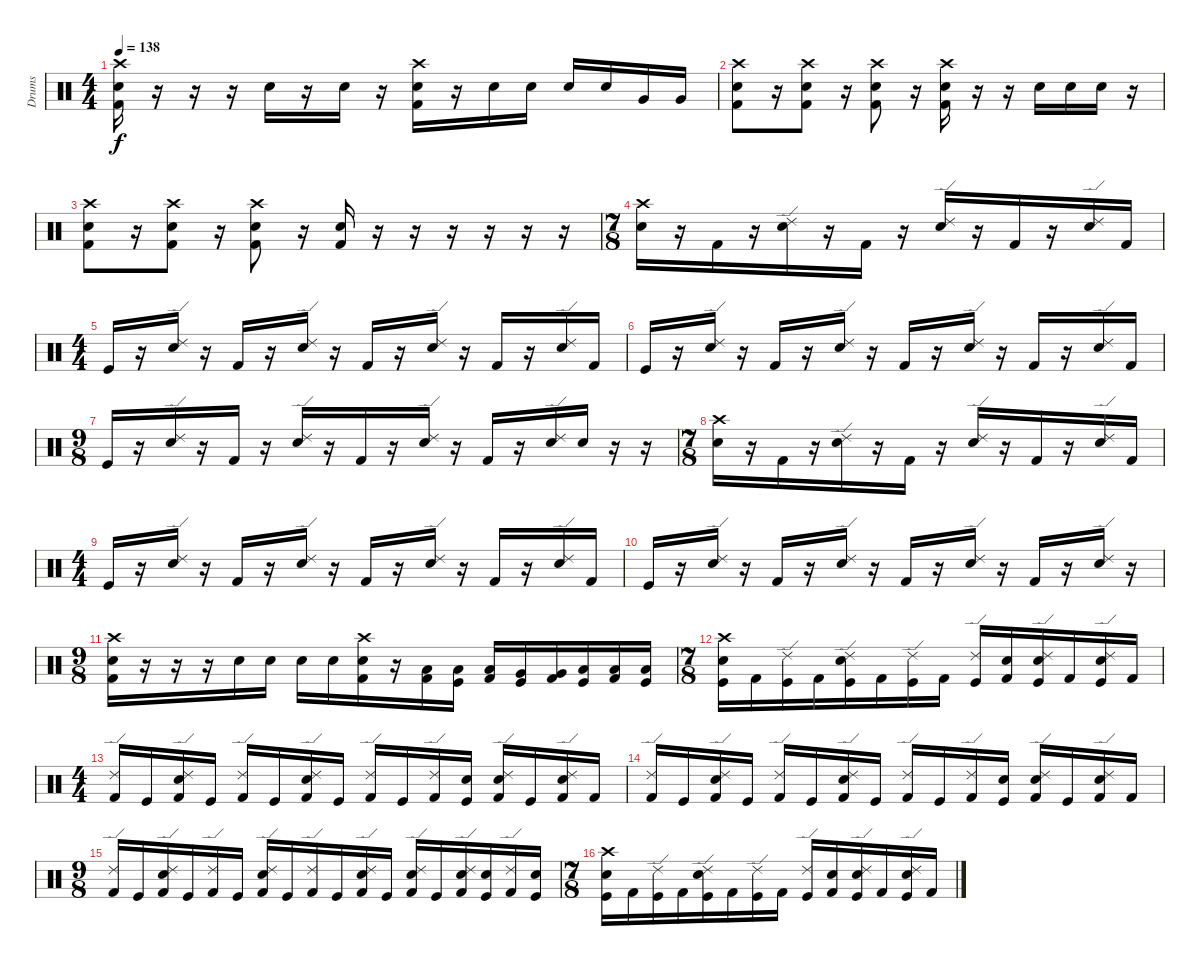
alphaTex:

\track ("Drums" "Drums") {instrument percussion}
\staff {score}
\articulation defaults
\ts (4 4)
\tempo 138
\clef neutral
\ks c
("Crash high (hit)" "Snare (hit) 2" "Kick (hit) 2").16{dy f} r.16 r.16 r.16 "Snare (hit) 2".16 r.16 "Snare (hit) 2".16 r.16 ("Crash high (hit)" "Snare (hit) 2" "Kick (hit) 2").16 r.16 "Snare (hit) 2".16 "Snare (hit) 2".16 "Snare (hit) 2".16 "Snare (hit) 2".16 "Very Low Tom (hit)".16 "Very Low Tom (hit)".16 |
("Crash high (hit)" "Snare (hit) 2" "Kick (hit) 2").8 r.16 ("Crash high (hit)" "Snare (hit) 2" "Kick (hit) 2").8 r.16 ("Crash high (hit)" "Snare (hit) 2" "Kick (hit) 2").8 r.16 ("Crash high (hit)" "Snare (hit) 2" "Kick (hit) 2").16 r.16 r.16 "Snare (hit) 2".16 "Snare (hit) 2".16 "Snare (hit) 2".16 r.16 |
("Crash high (hit)" "Snare (hit) 2" "Kick (hit) 2").8 r.16 ("Crash high (hit)" "Snare (hit) 2" "Kick (hit) 2").8 r.16 ("Crash high (hit)" "Snare (hit) 2" "Kick (hit) 2").8 r.16 ("Snare (hit) 2" "Kick (hit) 2").16 r.16 r.16 r.16 r.16 r.16 r.16 |
\ts (7 8)
\section ("" "")
("Crash high (hit)" "Snare (hit) 2").16 r.16 "Kick (hit) 2".16 r.16 ("Ride (edge) 2" "Snare (hit) 2").16 r.16 "Kick (hit) 2".16 r.16 ("Ride (edge) 2" "Snare (hit) 2").16 r.16 "Kick (hit) 2".16 r.16 ("Ride (edge) 2" "Snare (hit) 2").16 "Kick (hit) 2".16 |
\ts (4 4)
"Kick (hit)".16 r.16 ("Ride (edge) 2" "Snare (hit) 2").16 r.16 "Kick (hit) 2".16 r.16 ("Ride (edge) 2" "Snare (hit) 2").16 r.16 "Kick (hit) 2".16 r.16 ("Ride (edge) 2" "Snare (hit) 2").16 r.16 "Kick (hit) 2".16 r.16 ("Ride (edge) 2" "Snare (hit) 2").16 "Kick (hit) 2".16 |
"Kick (hit)".16 r.16 ("Ride (edge) 2" "Snare (hit) 2").16 r.16 "Kick (hit) 2".16 r.16 ("Ride (edge) 2" "Snare (hit) 2").16 r.16 "Kick (hit) 2".16 r.16 ("Ride (edge) 2" "Snare (hit) 2").16 r.16 "Kick (hit) 2".16 r.16 ("Ride (edge) 2" "Snare (hit) 2").16 "Kick (hit) 2".16 |
\ts (9 8)
"Kick (hit)".16 r.16 ("Ride (edge) 2" "Snare (hit) 2").16 r.16 "Kick (hit) 2".16 r.16 ("Ride (edge) 2" "Snare (hit) 2").16 r.16 "Kick (hit) 2".16 r.16 ("Ride (edge) 2" "Snare (hit) 2").16 r.16 "Kick (hit) 2".16 r.16 ("Ride (edge) 2" "Snare (hit) 2").16 "Snare (hit) 2".16 r.16 r.16 |
\ts (7 8)
("Crash high (hit)" "Snare (hit) 2").16 r.16 "Kick (hit) 2".16 r.16 ("Ride (edge) 2" "Snare (hit) 2").16 r.16 "Kick (hit) 2".16 r.16 ("Ride (edge) 2" "Snare (hit) 2").16 r.16 "Kick (hit) 2".16 r.16 ("Ride (edge) 2" "Snare (hit) 2").16 "Kick (hit) 2".16 |
\ts (4 4)
"Kick (hit)".16 r.16 ("Ride (edge) 2" "Snare (hit) 2").16 r.16 "Kick (hit) 2".16 r.16 ("Ride (edge) 2" "Snare (hit) 2").16 r.16 "Kick (hit) 2".16 r.16 ("Ride (edge) 2" "Snare (hit) 2").16 r.16 "Kick (hit) 2".16 r.16 ("Ride (edge) 2" "Snare (hit) 2").16 "Kick (hit) 2".16 |
"Kick (hit)".16 r.16 ("Ride (edge) 2" "Snare (hit) 2").16 r.16 "Kick (hit) 2".16 r.16 ("Ride (edge) 2" "Snare (hit) 2").16 r.16 "Kick (hit) 2".16 r.16 ("Ride (edge) 2" "Snare (hit) 2").16 r.16 "Kick (hit) 2".16 r.16 ("Ride (edge) 2" "Snare (hit) 2").16 r.16 |
\ts (9 8)
("Crash high (hit)" "Snare (hit) 2" "Kick (hit) 2").16 r.16 r.16 r.16 "Snare (hit) 2".16 "Snare (hit) 2".16 "Snare (hit) 2".16 "Snare (hit) 2".16 ("Crash high (hit)" "Snare (hit) 2" "Kick (hit) 2").16 r.16 ("Low Tom (hit)" "Kick (hit) 2").16 ("Low Tom (hit)" "Kick (hit)").16 ("Low Tom (hit)" "Kick (hit) 2").16 ("Very Low Tom (hit)" "Kick (hit)").16 ("Very Low Tom (hit)" "Kick (hit) 2").16 ("Low Floor Tom (hit)" "Kick (hit)").16 ("Low Floor Tom (hit)" "Kick (hit) 2").16 ("Low Floor Tom (hit)" "Kick (hit)").16 |
\ts (7 8)
\section ("" "")
("Crash high (hit)" "Snare (hit) 2" "Kick (hit)").16 "Kick (hit) 2".16 ("Ride (edge) 2" "Kick (hit)").16 "Kick (hit) 2".16 ("Ride (edge) 2" "Snare (hit) 2" "Kick (hit)").16 "Kick (hit) 2".16 ("Ride (edge) 2" "Kick (hit)").16 "Kick (hit) 2".16 ("Ride (edge) 2" "Kick (hit)").16 ("Snare (hit) 2" "Kick (hit) 2").16 ("Ride (edge) 2" "Snare (hit) 2" "Kick (hit)").16 "Kick (hit) 2".16 ("Ride (edge) 2" "Snare (hit) 2" "Kick (hit)").16 "Kick (hit) 2".16 |
\ts (4 4)
("Ride (edge) 2" "Kick (hit) 2").16 "Kick (hit)".16 ("Ride (edge) 2" "Snare (hit) 2" "Kick (hit) 2").16 "Kick (hit)".16 ("Ride (edge) 2" "Kick (hit) 2").16 "Kick (hit)".16 ("Ride (edge) 2" "Snare (hit) 2" "Kick (hit) 2").16 "Kick (hit)".16 ("Ride (edge) 2" "Kick (hit) 2").16 "Kick (hit)".16 ("Ride (edge) 2" "Kick (hit) 2").16 ("Snare (hit) 2" "Kick (hit)").16 ("Ride (edge) 2" "Snare (hit) 2" "Kick (hit) 2").16 "Kick (hit)".16 ("Ride (edge) 2" "Snare (hit) 2" "Kick (hit) 2").16 "Kick (hit) 2".16 |
("Ride (edge) 2" "Kick (hit) 2").16 "Kick (hit)".16 ("Ride (edge) 2" "Snare (hit) 2" "Kick (hit) 2").16 "Kick (hit)".16 ("Ride (edge) 2" "Kick (hit) 2").16 "Kick (hit)".16 ("Ride (edge) 2" "Snare (hit) 2" "Kick (hit) 2").16 "Kick (hit)".16 ("Ride (edge) 2" "Kick (hit) 2").16 "Kick (hit)".16 ("Ride (edge) 2" "Kick (hit) 2").16 ("Snare (hit) 2" "Kick (hit)").16 ("Ride (edge) 2" "Snare (hit) 2" "Kick (hit) 2").16 "Kick (hit)".16 ("Ride (edge) 2" "Snare (hit) 2" "Kick (hit) 2").16 "Kick (hit) 2".16 |
\ts (9 8)
("Ride (edge) 2" "Kick (hit) 2").16 "Kick (hit)".16 ("Ride (edge) 2" "Snare (hit) 2" "Kick (hit) 2").16 "Kick (hit)".16 ("Ride (edge) 2" "Kick (hit) 2").16 "Kick (hit)".16 ("Ride (edge) 2" "Snare (hit) 2" "Kick (hit) 2").16 "Kick (hit)".16 ("Ride (edge) 2" "Kick (hit) 2").16 "Kick (hit)".16 ("Ride (edge) 2" "Snare (hit) 2" "Kick (hit) 2").16 "Kick (hit)".16 ("Ride (edge) 2" "Snare (hit) 2" "Kick (hit) 2").16 "Kick (hit)".16 ("Ride (edge) 2" "Snare (hit) 2" "Kick (hit) 2").16 ("Snare (hit) 2" "Kick (hit)").16 ("Ride (edge) 2" "Kick (hit) 2").16 ("Snare (hit) 2" "Kick (hit)").16 |
\ts (7 8)
("Crash high (hit)" "Snare (hit) 2" "Kick (hit)").16 "Kick (hit) 2".16 ("Ride (edge) 2" "Kick (hit)").16 "Kick (hit) 2".16 ("Ride (edge) 2" "Snare (hit) 2" "Kick (hit)").16 "Kick (hit) 2".16 ("Ride (edge) 2" "Kick (hit)").16 "Kick (hit) 2".16 ("Ride (edge) 2" "Kick (hit)").16 ("Snare (hit) 2" "Kick (hit) 2").16 ("Ride (edge) 2" "Snare (hit) 2" "Kick (hit)").16 "Kick (hit) 2".16 ("Ride (edge) 2" "Snare (hit) 2" "Kick (hit)").16 "Kick (hit) 2".16
